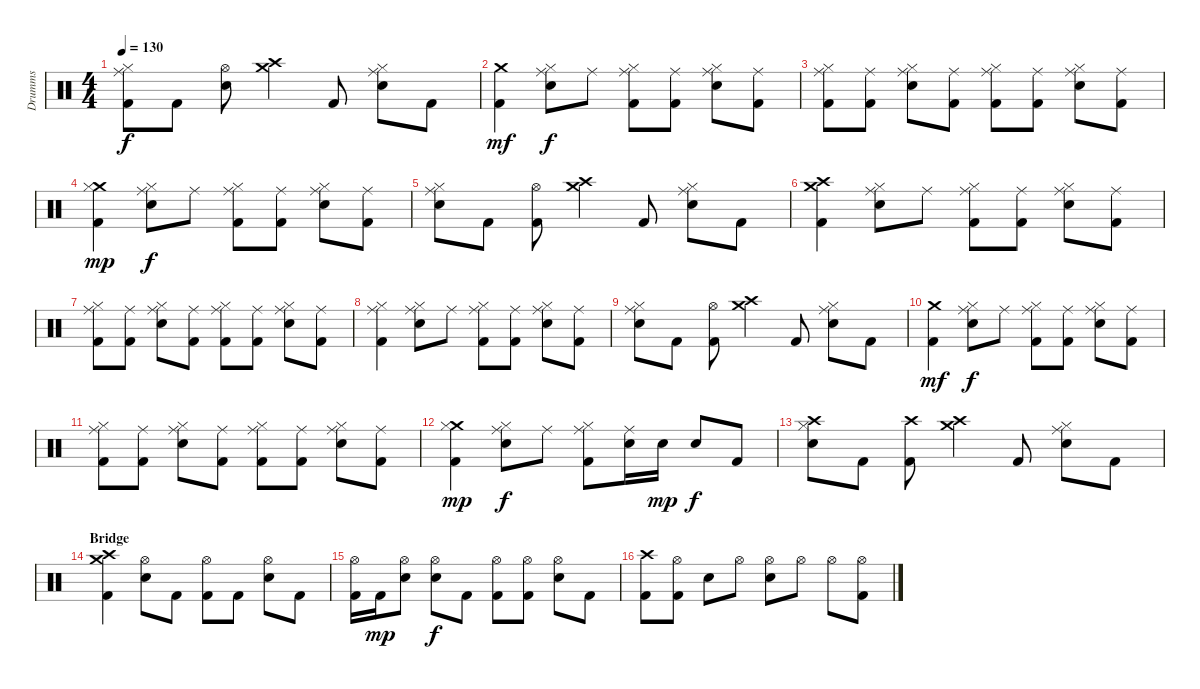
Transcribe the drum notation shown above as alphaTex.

\track ("Drumms" "Drumms") {instrument percussion}
\staff {score}
\articulation defaults
\ts (4 4)
\tempo 130
\clef neutral
\ks c
("Ride (middle)" "Hi-Hat (closed)" "Kick (hit) 2").8{dy f} "Kick (hit) 2".8 ("Hi-Hat (open)" "Electric Snare (hit)").8 ("Crash medium (hit)" "Crash high (hit)").4 "Kick (hit) 2".8 ("Ride (middle)" "Hi-Hat (closed)" "Electric Snare (hit)").8 "Kick (hit) 2".8 |
("Crash medium (hit)" "Kick (hit) 2").4{dy mf} ("Ride (middle)" "Hi-Hat (closed)" "Electric Snare (hit)").8{dy f} "Ride (middle)".8 ("Ride (middle)" "Hi-Hat (closed)" "Kick (hit) 2").8 ("Ride (middle)" "Kick (hit) 2").8 ("Ride (middle)" "Hi-Hat (closed)" "Electric Snare (hit)").8 ("Ride (middle)" "Kick (hit) 2").8 |
("Ride (middle)" "Hi-Hat (closed)" "Kick (hit) 2").8 ("Ride (middle)" "Kick (hit) 2").8 ("Ride (middle)" "Hi-Hat (closed)" "Electric Snare (hit)").8 ("Ride (middle)" "Kick (hit) 2").8 ("Ride (middle)" "Hi-Hat (closed)" "Kick (hit) 2").8 ("Ride (middle)" "Kick (hit) 2").8 ("Ride (middle)" "Hi-Hat (closed)" "Electric Snare (hit)").8 ("Ride (middle)" "Kick (hit) 2").8 |
("Crash medium (hit)" "Hi-Hat (closed)" "Kick (hit) 2").4{dy mp} ("Ride (middle)" "Hi-Hat (closed)" "Electric Snare (hit)").8{dy f} "Ride (middle)".8 ("Ride (middle)" "Hi-Hat (closed)" "Kick (hit) 2").8 ("Ride (middle)" "Kick (hit) 2").8 ("Ride (middle)" "Hi-Hat (closed)" "Electric Snare (hit)").8 ("Ride (middle)" "Kick (hit) 2").8 |
("Ride (middle)" "Hi-Hat (closed)" "Electric Snare (hit)").8 "Kick (hit) 2".8 ("Hi-Hat (open)" "Kick (hit) 2").8 ("Crash medium (hit)" "Crash high (hit)").4 "Kick (hit) 2".8 ("Ride (middle)" "Hi-Hat (closed)" "Electric Snare (hit)").8 "Kick (hit) 2".8 |
("Crash medium (hit)" "Crash high (hit)" "Kick (hit) 2").4 ("Ride (middle)" "Hi-Hat (closed)" "Electric Snare (hit)").8 "Ride (middle)".8 ("Ride (middle)" "Hi-Hat (closed)" "Kick (hit) 2").8 ("Ride (middle)" "Kick (hit) 2").8 ("Ride (middle)" "Hi-Hat (closed)" "Electric Snare (hit)").8 ("Ride (middle)" "Kick (hit) 2").8 |
("Ride (middle)" "Hi-Hat (closed)" "Kick (hit) 2").8 ("Ride (middle)" "Kick (hit) 2").8 ("Ride (middle)" "Hi-Hat (closed)" "Electric Snare (hit)").8 ("Ride (middle)" "Kick (hit) 2").8 ("Ride (middle)" "Hi-Hat (closed)" "Kick (hit) 2").8 ("Ride (middle)" "Kick (hit) 2").8 ("Ride (middle)" "Hi-Hat (closed)" "Electric Snare (hit)").8 ("Ride (middle)" "Kick (hit) 2").8 |
("Ride (middle)" "Hi-Hat (closed)" "Kick (hit) 2").4 ("Ride (middle)" "Hi-Hat (closed)" "Electric Snare (hit)").8 "Ride (middle)".8 ("Ride (middle)" "Hi-Hat (closed)" "Kick (hit) 2").8 ("Ride (middle)" "Kick (hit) 2").8 ("Ride (middle)" "Hi-Hat (closed)" "Electric Snare (hit)").8 ("Ride (middle)" "Kick (hit) 2").8 |
("Ride (middle)" "Hi-Hat (closed)" "Electric Snare (hit)").8 "Kick (hit) 2".8 ("Hi-Hat (open)" "Kick (hit) 2").8 ("Crash medium (hit)" "Crash high (hit)").4 "Kick (hit) 2".8 ("Ride (middle)" "Hi-Hat (closed)" "Electric Snare (hit)").8 "Kick (hit) 2".8 |
("Crash medium (hit)" "Kick (hit) 2").4{dy mf} ("Ride (middle)" "Hi-Hat (closed)" "Electric Snare (hit)").8{dy f} "Ride (middle)".8 ("Ride (middle)" "Hi-Hat (closed)" "Kick (hit) 2").8 ("Ride (middle)" "Kick (hit) 2").8 ("Ride (middle)" "Hi-Hat (closed)" "Electric Snare (hit)").8 ("Ride (middle)" "Kick (hit) 2").8 |
("Ride (middle)" "Hi-Hat (closed)" "Kick (hit) 2").8 ("Ride (middle)" "Kick (hit) 2").8 ("Ride (middle)" "Hi-Hat (closed)" "Electric Snare (hit)").8 ("Ride (middle)" "Kick (hit) 2").8 ("Ride (middle)" "Hi-Hat (closed)" "Kick (hit) 2").8 ("Ride (middle)" "Kick (hit) 2").8 ("Ride (middle)" "Hi-Hat (closed)" "Electric Snare (hit)").8 ("Ride (middle)" "Kick (hit) 2").8 |
("Crash medium (hit)" "Hi-Hat (closed)" "Kick (hit) 2").4{dy mp} ("Ride (middle)" "Hi-Hat (closed)" "Electric Snare (hit)").8{dy f} "Ride (middle)".8 ("Ride (middle)" "Hi-Hat (closed)" "Kick (hit) 2").8 ("Ride (middle)" "Electric Snare (hit)").16 "Electric Snare (hit)".16{dy mp} "Electric Snare (hit)".8{dy f} "Kick (hit) 2".8 |
("Crash high (hit)" "Hi-Hat (closed)" "Electric Snare (hit)").8 "Kick (hit) 2".8 ("Crash high (hit)" "Kick (hit) 2").8 ("Crash medium (hit)" "Crash high (hit)").4 "Kick (hit) 2".8 ("Ride (middle)" "Hi-Hat (closed)" "Electric Snare (hit)").8 "Kick (hit) 2".8 |
\section ("" "Bridge")
("Crash medium (hit)" "Crash high (hit)" "Kick (hit) 2").4 ("Hi-Hat (open)" "Electric Snare (hit)").8 "Kick (hit) 2".8 ("Hi-Hat (open)" "Kick (hit) 2").8 "Kick (hit) 2".8 ("Hi-Hat (open)" "Electric Snare (hit)").8 "Kick (hit) 2".8 |
("Hi-Hat (open)" "Kick (hit) 2").16 "Kick (hit) 2".16{dy mp} ("Hi-Hat (open)" "Electric Snare (hit)").8 ("Hi-Hat (open)" "Electric Snare (hit)").8{dy f} "Kick (hit) 2".8 ("Hi-Hat (open)" "Kick (hit) 2").8 ("Hi-Hat (open)" "Kick (hit) 2").8 ("Hi-Hat (open)" "Electric Snare (hit)").8 "Kick (hit) 2".8 |
("Crash high (hit)" "Kick (hit) 2").8 ("Hi-Hat (open)" "Kick (hit) 2").8 "Electric Snare (hit)".8 "Hi-Hat (open)".8 ("Hi-Hat (open)" "Electric Snare (hit)").8 "Hi-Hat (open)".8 "Hi-Hat (open)".8 ("Hi-Hat (open)" "Kick (hit) 2").8
